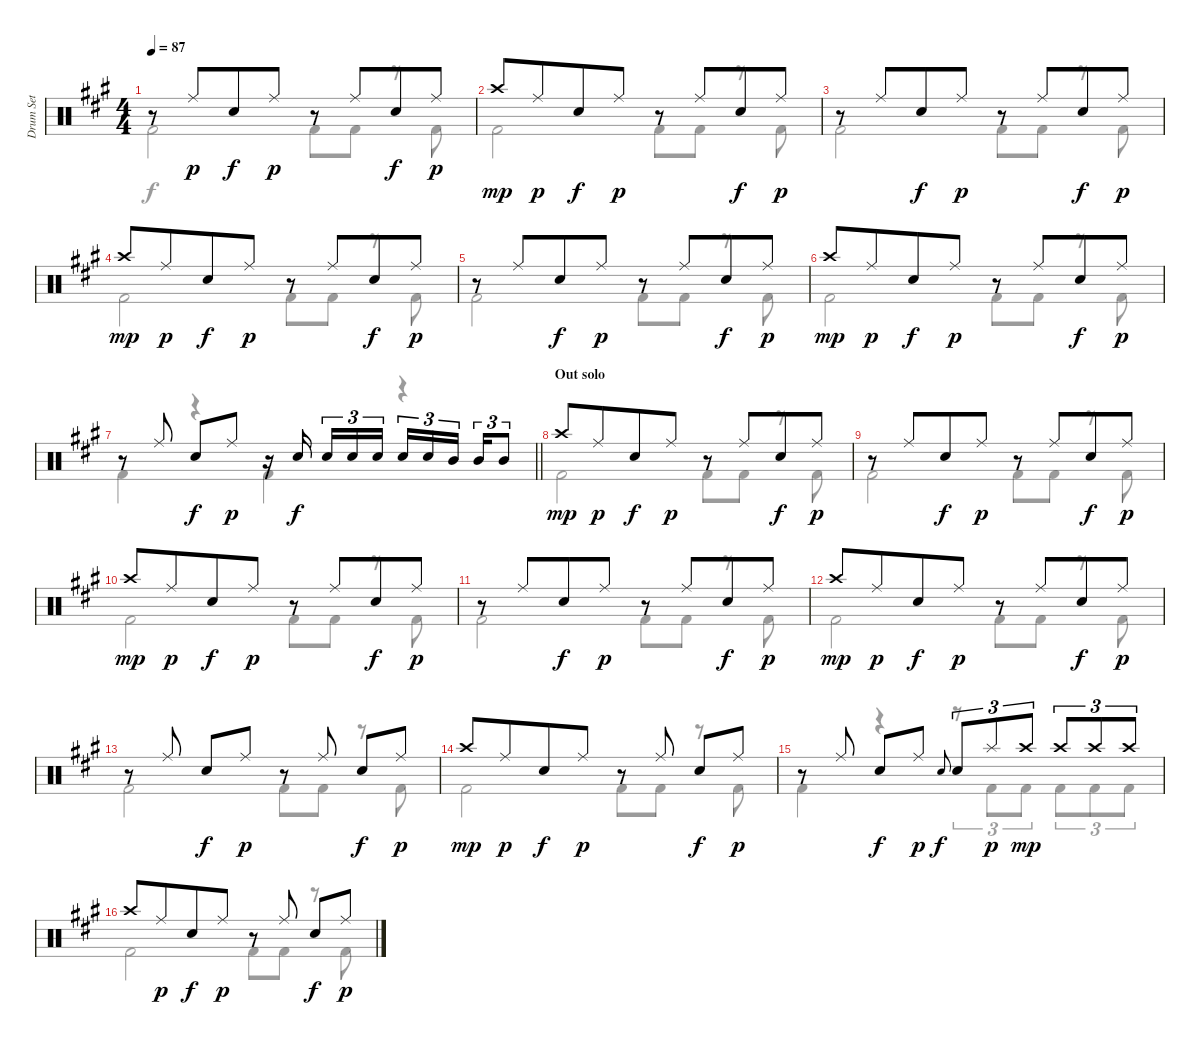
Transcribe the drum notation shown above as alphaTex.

\track ("Drum Set" "Drum Set") {instrument percussion}
\staff {score}
\articulation defaults
\voice
\ts (4 4)
\tempo 87
\clef neutral
\ks f#minor
r.8{dy p} "Ride (middle)".8{beam merge} "Electric Snare (hit)".8{dy f} "Ride (middle)".8{dy p} r.8 "Ride (middle)".8{beam merge} "Electric Snare (hit)".8{dy f} "Ride (middle)".8{dy p} |
"Crash high (hit)".8{dy mp} "Ride (middle)".8{dy p beam merge} "Electric Snare (hit)".8{dy f} "Ride (middle)".8{dy p} r.8 "Ride (middle)".8{beam merge} "Electric Snare (hit)".8{dy f} "Ride (middle)".8{dy p} |
r.8 "Ride (middle)".8{beam merge} "Electric Snare (hit)".8{dy f} "Ride (middle)".8{dy p} r.8 "Ride (middle)".8{beam merge} "Electric Snare (hit)".8{dy f} "Ride (middle)".8{dy p} |
"Crash high (hit)".8{dy mp} "Ride (middle)".8{dy p beam merge} "Electric Snare (hit)".8{dy f} "Ride (middle)".8{dy p} r.8 "Ride (middle)".8{beam merge} "Electric Snare (hit)".8{dy f} "Ride (middle)".8{dy p} |
r.8 "Ride (middle)".8{beam merge} "Electric Snare (hit)".8{dy f} "Ride (middle)".8{dy p} r.8 "Ride (middle)".8{beam merge} "Electric Snare (hit)".8{dy f} "Ride (middle)".8{dy p} |
"Crash high (hit)".8{dy mp} "Ride (middle)".8{dy p beam merge} "Electric Snare (hit)".8{dy f} "Ride (middle)".8{dy p} r.8 "Ride (middle)".8{beam merge} "Electric Snare (hit)".8{dy f} "Ride (middle)".8{dy p} |
\barLineRight lightlight
r.8 "Ride (middle)".8 "Electric Snare (hit)".8{dy f} "Ride (middle)".8{dy p} r.16 "Electric Snare (hit)".16{dy f beam splitsecondary} "Electric Snare (hit)".16{tu (3 2)} "Electric Snare (hit)".16{tu (3 2)} "Electric Snare (hit)".16{tu (3 2)} "Electric Snare (hit)".16{tu (3 2)} "Electric Snare (hit)".16{tu (3 2)} "Mid Tom (hit)".16{tu (3 2) beam splitsecondary} "Mid Tom (hit)".16{tu (3 2)} "Mid Tom (hit)".8{tu (3 2)} |
\section ("" "Out solo")
"Crash high (hit)".8{dy mp} "Ride (middle)".8{dy p beam merge} "Electric Snare (hit)".8{dy f} "Ride (middle)".8{dy p} r.8 "Ride (middle)".8{beam merge} "Electric Snare (hit)".8{dy f} "Ride (middle)".8{dy p} |
r.8 "Ride (middle)".8{beam merge} "Electric Snare (hit)".8{dy f} "Ride (middle)".8{dy p} r.8 "Ride (middle)".8{beam merge} "Electric Snare (hit)".8{dy f} "Ride (middle)".8{dy p} |
"Crash high (hit)".8{dy mp} "Ride (middle)".8{dy p beam merge} "Electric Snare (hit)".8{dy f} "Ride (middle)".8{dy p} r.8 "Ride (middle)".8{beam merge} "Electric Snare (hit)".8{dy f} "Ride (middle)".8{dy p} |
r.8 "Ride (middle)".8{beam merge} "Electric Snare (hit)".8{dy f} "Ride (middle)".8{dy p} r.8 "Ride (middle)".8{beam merge} "Electric Snare (hit)".8{dy f} "Ride (middle)".8{dy p} |
"Crash high (hit)".8{dy mp} "Ride (middle)".8{dy p beam merge} "Electric Snare (hit)".8{dy f} "Ride (middle)".8{dy p} r.8 "Ride (middle)".8{beam merge} "Electric Snare (hit)".8{dy f} "Ride (middle)".8{dy p} |
r.8 "Ride (middle)".8 "Electric Snare (hit)".8{dy f} "Ride (middle)".8{dy p} r.8 "Ride (middle)".8 "Electric Snare (hit)".8{dy f} "Ride (middle)".8{dy p} |
"Crash high (hit)".8{dy mp} "Ride (middle)".8{dy p beam merge} "Electric Snare (hit)".8{dy f} "Ride (middle)".8{dy p} r.8 "Ride (middle)".8 "Electric Snare (hit)".8{dy f} "Ride (middle)".8{dy p} |
r.8 "Ride (middle)".8 "Electric Snare (hit)".8{dy f} "Ride (middle)".8{dy p} "Electric Snare (hit)".8{gr onbeat dy f} "Electric Snare (hit)".8{tu (3 2)} "Splash (hit)".8{tu (3 2) dy p} "Crash high (hit)".8{tu (3 2) dy mp} "Crash high (hit)".8{tu (3 2)} "Crash high (hit)".8{tu (3 2)} "Crash high (hit)".8{tu (3 2)} |
"Crash high (hit)".8 "Ride (middle)".8{dy p beam merge} "Electric Snare (hit)".8{dy f} "Ride (middle)".8{dy p} r.8 "Ride (middle)".8 "Electric Snare (hit)".8{dy f} "Ride (middle)".8{dy p}
\voice
\clef neutral
\ottava regular
\simile none
\ks f#minor "Kick (hit) 2".2{dy f} "Kick (hit) 2".8 "Kick (hit) 2".8
r.8 "Kick (hit) 2".8 |
"Kick (hit) 2".2 "Kick (hit) 2".8 "Kick (hit) 2".8 r.8 "Kick (hit) 2".8 |
"Kick (hit) 2".2 "Kick (hit) 2".8 "Kick (hit) 2".8 r.8 "Kick (hit) 2".8 |
"Kick (hit) 2".2 "Kick (hit) 2".8 "Kick (hit) 2".8 r.8 "Kick (hit) 2".8 |
"Kick (hit) 2".2 "Kick (hit) 2".8 "Kick (hit) 2".8 r.8 "Kick (hit) 2".8 |
"Kick (hit) 2".2 "Kick (hit) 2".8 "Kick (hit) 2".8 r.8 "Kick (hit) 2".8 |
\barLineRight lightlight "Kick (hit) 2".4
r.4 "Kick (hit) 2".4 r.4 |
"Kick (hit) 2".2 "Kick (hit) 2".8 "Kick (hit) 2".8 r.8 "Kick (hit) 2".8 |
"Kick (hit) 2".2 "Kick (hit) 2".8 "Kick (hit) 2".8 r.8 "Kick (hit) 2".8 |
"Kick (hit) 2".2 "Kick (hit) 2".8 "Kick (hit) 2".8 r.8 "Kick (hit) 2".8 |
"Kick (hit) 2".2 "Kick (hit) 2".8 "Kick (hit) 2".8 r.8 "Kick (hit) 2".8 |
"Kick (hit) 2".2 "Kick (hit) 2".8 "Kick (hit) 2".8 r.8 "Kick (hit) 2".8 |
"Kick (hit) 2".2 "Kick (hit) 2".8 "Kick (hit) 2".8 r.8 "Kick (hit) 2".8 |
"Kick (hit) 2".2 "Kick (hit) 2".8 "Kick (hit) 2".8 r.8 "Kick (hit) 2".8 |
"Kick (hit) 2".4 r.4 r.8{tu (3 2)} "Kick (hit) 2".8{tu (3 2)} "Kick (hit) 2".8{tu (3 2)} "Kick (hit) 2".8{tu (3 2)} "Kick (hit) 2".8{tu (3 2)} "Kick (hit) 2".8{tu (3 2)} |
"Kick (hit) 2".2 "Kick (hit) 2".8 "Kick (hit) 2".8 r.8 "Kick (hit) 2".8
